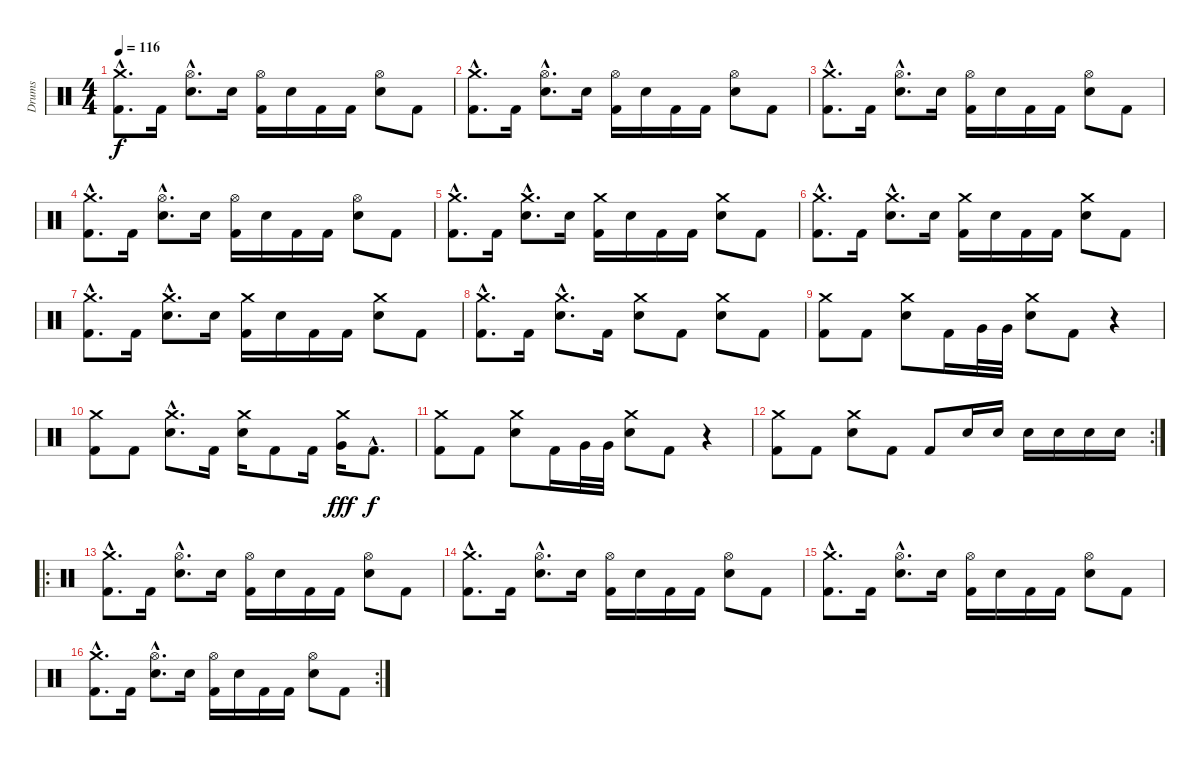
\track ("Drums" "Drums") {instrument percussion}
\staff {score}
\articulation defaults
\ts (4 4)
\tempo 116
\clef neutral
\ks c
("Crash medium (hit)"{hac} "Kick (hit) 2"{hac}).8{d dy f} "Kick (hit) 2".16 ("Hi-Hat (open)"{hac} "Electric Snare (hit)"{hac}).8{d} "Electric Snare (hit)".16 ("Hi-Hat (open)" "Kick (hit) 2").16 "Electric Snare (hit)".16 "Kick (hit) 2".16 "Kick (hit) 2".16 ("Hi-Hat (open)" "Electric Snare (hit)").8 "Kick (hit) 2".8 |
("Crash medium (hit)"{hac} "Kick (hit) 2"{hac}).8{d} "Kick (hit) 2".16 ("Hi-Hat (open)"{hac} "Electric Snare (hit)"{hac}).8{d} "Electric Snare (hit)".16 ("Hi-Hat (open)" "Kick (hit) 2").16 "Electric Snare (hit)".16 "Kick (hit) 2".16 "Kick (hit) 2".16 ("Hi-Hat (open)" "Electric Snare (hit)").8 "Kick (hit) 2".8 |
("Crash medium (hit)"{hac} "Kick (hit) 2"{hac}).8{d} "Kick (hit) 2".16 ("Hi-Hat (open)"{hac} "Electric Snare (hit)"{hac}).8{d} "Electric Snare (hit)".16 ("Hi-Hat (open)" "Kick (hit) 2").16 "Electric Snare (hit)".16 "Kick (hit) 2".16 "Kick (hit) 2".16 ("Hi-Hat (open)" "Electric Snare (hit)").8 "Kick (hit) 2".8 |
("Crash medium (hit)"{hac} "Kick (hit) 2"{hac}).8{d} "Kick (hit) 2".16 ("Hi-Hat (open)"{hac} "Electric Snare (hit)"{hac}).8{d} "Electric Snare (hit)".16 ("Hi-Hat (open)" "Kick (hit) 2").16 "Electric Snare (hit)".16 "Kick (hit) 2".16 "Kick (hit) 2".16 ("Hi-Hat (open)" "Electric Snare (hit)").8 "Kick (hit) 2".8 |
("Crash medium (hit)"{hac} "Kick (hit) 2"{hac}).8{d} "Kick (hit) 2".16 ("Crash medium (hit)"{hac} "Electric Snare (hit)"{hac}).8{d} "Electric Snare (hit)".16 ("Crash medium (hit)" "Kick (hit) 2").16 "Electric Snare (hit)".16 "Kick (hit) 2".16 "Kick (hit) 2".16 ("Crash medium (hit)" "Electric Snare (hit)").8 "Kick (hit) 2".8 |
("Crash medium (hit)"{hac} "Kick (hit) 2"{hac}).8{d} "Kick (hit) 2".16 ("Crash medium (hit)"{hac} "Electric Snare (hit)"{hac}).8{d} "Electric Snare (hit)".16 ("Crash medium (hit)" "Kick (hit) 2").16 "Electric Snare (hit)".16 "Kick (hit) 2".16 "Kick (hit) 2".16 ("Crash medium (hit)" "Electric Snare (hit)").8 "Kick (hit) 2".8 |
("Crash medium (hit)"{hac} "Kick (hit) 2"{hac}).8{d} "Kick (hit) 2".16 ("Crash medium (hit)"{hac} "Electric Snare (hit)"{hac}).8{d} "Electric Snare (hit)".16 ("Crash medium (hit)" "Kick (hit) 2").16 "Electric Snare (hit)".16 "Kick (hit) 2".16 "Kick (hit) 2".16 ("Crash medium (hit)" "Electric Snare (hit)").8 "Kick (hit) 2".8 |
("Crash medium (hit)"{hac} "Kick (hit) 2"{hac}).8{d} "Kick (hit) 2".16 ("Crash medium (hit)"{hac} "Electric Snare (hit)"{hac}).8{d} "Kick (hit) 2".16 ("Crash medium (hit)" "Electric Snare (hit)").8 "Kick (hit) 2".8 ("Crash medium (hit)" "Electric Snare (hit)").8 "Kick (hit) 2".8 |
("Crash medium (hit)" "Kick (hit) 2").8 "Kick (hit) 2".8 ("Crash medium (hit)" "Electric Snare (hit)").8 "Kick (hit) 2".16 "Very Low Tom (hit)".32 "Very Low Tom (hit)".32 ("Crash medium (hit)" "Electric Snare (hit)").8 "Kick (hit) 2".8 r.4 |
("Crash medium (hit)" "Kick (hit) 2").8 "Kick (hit) 2".8 ("Crash medium (hit)"{hac} "Electric Snare (hit)"{hac}).8{d} "Kick (hit) 2".16 ("Crash medium (hit)" "Electric Snare (hit)").16 "Kick (hit) 2".8 "Kick (hit) 2".16 ("Crash medium (hit)" "Very Low Tom (hit)").16{dy fff} "Kick (hit) 2"{hac}.8{d dy f} |
("Crash medium (hit)" "Kick (hit) 2").8 "Kick (hit) 2".8 ("Crash medium (hit)" "Electric Snare (hit)").8 "Kick (hit) 2".16 "Very Low Tom (hit)".32 "Very Low Tom (hit)".32 ("Crash medium (hit)" "Electric Snare (hit)").8 "Kick (hit) 2".8 r.4 |
\rc 2
("Crash medium (hit)" "Kick (hit) 2").8 "Kick (hit) 2".8 ("Crash medium (hit)" "Electric Snare (hit)").8 "Kick (hit) 2".8 "Kick (hit) 2".8 "Electric Snare (hit)".16 "Electric Snare (hit)".16 "Electric Snare (hit)".16 "Electric Snare (hit)".16 "Electric Snare (hit)".16 "Electric Snare (hit)".16 |
\ro
("Crash medium (hit)"{hac} "Kick (hit) 2"{hac}).8{d} "Kick (hit) 2".16 ("Hi-Hat (open)"{hac} "Electric Snare (hit)"{hac}).8{d} "Electric Snare (hit)".16 ("Hi-Hat (open)" "Kick (hit) 2").16 "Electric Snare (hit)".16 "Kick (hit) 2".16 "Kick (hit) 2".16 ("Hi-Hat (open)" "Electric Snare (hit)").8 "Kick (hit) 2".8 |
("Crash medium (hit)"{hac} "Kick (hit) 2"{hac}).8{d} "Kick (hit) 2".16 ("Hi-Hat (open)"{hac} "Electric Snare (hit)"{hac}).8{d} "Electric Snare (hit)".16 ("Hi-Hat (open)" "Kick (hit) 2").16 "Electric Snare (hit)".16 "Kick (hit) 2".16 "Kick (hit) 2".16 ("Hi-Hat (open)" "Electric Snare (hit)").8 "Kick (hit) 2".8 |
("Crash medium (hit)"{hac} "Kick (hit) 2"{hac}).8{d} "Kick (hit) 2".16 ("Hi-Hat (open)"{hac} "Electric Snare (hit)"{hac}).8{d} "Electric Snare (hit)".16 ("Hi-Hat (open)" "Kick (hit) 2").16 "Electric Snare (hit)".16 "Kick (hit) 2".16 "Kick (hit) 2".16 ("Hi-Hat (open)" "Electric Snare (hit)").8 "Kick (hit) 2".8 |
\rc 2
("Crash medium (hit)"{hac} "Kick (hit) 2"{hac}).8{d} "Kick (hit) 2".16 ("Hi-Hat (open)"{hac} "Electric Snare (hit)"{hac}).8{d} "Electric Snare (hit)".16 ("Hi-Hat (open)" "Kick (hit) 2").16 "Electric Snare (hit)".16 "Kick (hit) 2".16 "Kick (hit) 2".16 ("Hi-Hat (open)" "Electric Snare (hit)").8 "Kick (hit) 2".8
